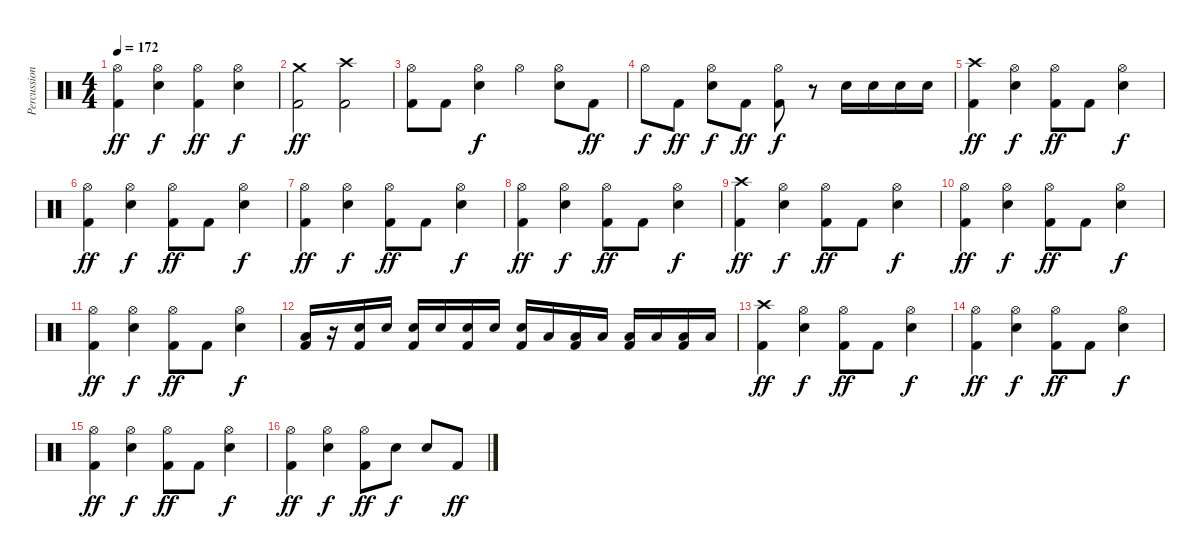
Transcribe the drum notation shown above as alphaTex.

\track ("Percussion" "Percussion") {instrument percussion}
\staff {score}
\articulation defaults
\ts (4 4)
\tempo 172
\clef neutral
\ks c
("Hi-Hat (open)" "Kick (hit) 2").4{dy ff} ("Hi-Hat (open)" "Snare (hit) 2").4{dy f} ("Hi-Hat (open)" "Kick (hit) 2").4{dy ff} ("Hi-Hat (open)" "Snare (hit) 2").4{dy f} |
("Crash medium (hit)" "Kick (hit) 2").2{dy ff} ("Crash high (hit)" "Kick (hit) 2").2 |
("Hi-Hat (open)" "Kick (hit) 2").8 "Kick (hit) 2".8 ("Hi-Hat (open)" "Snare (hit) 2").4{dy f} "Hi-Hat (open)".4 ("Hi-Hat (open)" "Snare (hit) 2").8 "Kick (hit) 2".8{dy ff} |
"Hi-Hat (open)".8{dy f} "Kick (hit) 2".8{dy ff} ("Hi-Hat (open)" "Snare (hit) 2").8{dy f} "Kick (hit) 2".8{dy ff} ("Hi-Hat (open)" "Kick (hit) 2").8{dy f} r.8 "Snare (hit) 2".16 "Snare (hit) 2".16 "Snare (hit) 2".16 "Snare (hit) 2".16 |
("Crash high (hit)" "Kick (hit) 2").4{dy ff} ("Hi-Hat (open)" "Snare (hit) 2").4{dy f} ("Hi-Hat (open)" "Kick (hit) 2").8{dy ff} "Kick (hit) 2".8 ("Hi-Hat (open)" "Snare (hit) 2").4{dy f} |
("Hi-Hat (open)" "Kick (hit) 2").4{dy ff} ("Hi-Hat (open)" "Snare (hit) 2").4{dy f} ("Hi-Hat (open)" "Kick (hit) 2").8{dy ff} "Kick (hit) 2".8 ("Hi-Hat (open)" "Snare (hit) 2").4{dy f} |
("Hi-Hat (open)" "Kick (hit) 2").4{dy ff} ("Hi-Hat (open)" "Snare (hit) 2").4{dy f} ("Hi-Hat (open)" "Kick (hit) 2").8{dy ff} "Kick (hit) 2".8 ("Hi-Hat (open)" "Snare (hit) 2").4{dy f} |
("Hi-Hat (open)" "Kick (hit) 2").4{dy ff} ("Hi-Hat (open)" "Snare (hit) 2").4{dy f} ("Hi-Hat (open)" "Kick (hit) 2").8{dy ff} "Kick (hit) 2".8 ("Hi-Hat (open)" "Snare (hit) 2").4{dy f} |
("Crash high (hit)" "Kick (hit) 2").4{dy ff} ("Hi-Hat (open)" "Snare (hit) 2").4{dy f} ("Hi-Hat (open)" "Kick (hit) 2").8{dy ff} "Kick (hit) 2".8 ("Hi-Hat (open)" "Snare (hit) 2").4{dy f} |
("Hi-Hat (open)" "Kick (hit) 2").4{dy ff} ("Hi-Hat (open)" "Snare (hit) 2").4{dy f} ("Hi-Hat (open)" "Kick (hit) 2").8{dy ff} "Kick (hit) 2".8 ("Hi-Hat (open)" "Snare (hit) 2").4{dy f} |
("Hi-Hat (open)" "Kick (hit) 2").4{dy ff} ("Hi-Hat (open)" "Snare (hit) 2").4{dy f} ("Hi-Hat (open)" "Kick (hit) 2").8{dy ff} "Kick (hit) 2".8 ("Hi-Hat (open)" "Snare (hit) 2").4{dy f} |
("Low Tom (hit)" "Kick (hit) 2").16 r.16 ("Snare (hit) 2" "Kick (hit) 2").16 "Snare (hit) 2".16 ("Snare (hit) 2" "Kick (hit) 2").16 "Snare (hit) 2".16 ("Snare (hit) 2" "Kick (hit) 2").16 "Snare (hit) 2".16 ("Snare (hit) 2" "Kick (hit) 2").16 "Low Tom (hit)".16 ("Low Tom (hit)" "Kick (hit) 2").16 "Low Tom (hit)".16 ("Low Tom (hit)" "Kick (hit) 2").16 "Low Tom (hit)".16 ("Low Tom (hit)" "Kick (hit) 2").16 "Low Tom (hit)".16 |
("Crash high (hit)" "Kick (hit) 2").4{dy ff} ("Hi-Hat (open)" "Snare (hit) 2").4{dy f} ("Hi-Hat (open)" "Kick (hit) 2").8{dy ff} "Kick (hit) 2".8 ("Hi-Hat (open)" "Snare (hit) 2").4{dy f} |
("Hi-Hat (open)" "Kick (hit) 2").4{dy ff} ("Hi-Hat (open)" "Snare (hit) 2").4{dy f} ("Hi-Hat (open)" "Kick (hit) 2").8{dy ff} "Kick (hit) 2".8 ("Hi-Hat (open)" "Snare (hit) 2").4{dy f} |
("Hi-Hat (open)" "Kick (hit) 2").4{dy ff} ("Hi-Hat (open)" "Snare (hit) 2").4{dy f} ("Hi-Hat (open)" "Kick (hit) 2").8{dy ff} "Kick (hit) 2".8 ("Hi-Hat (open)" "Snare (hit) 2").4{dy f} |
("Hi-Hat (open)" "Kick (hit) 2").4{dy ff} ("Hi-Hat (open)" "Snare (hit) 2").4{dy f} ("Hi-Hat (open)" "Kick (hit) 2").8{dy ff} "Snare (hit) 2".8{dy f} "Snare (hit) 2".8 "Kick (hit) 2".8{dy ff}
